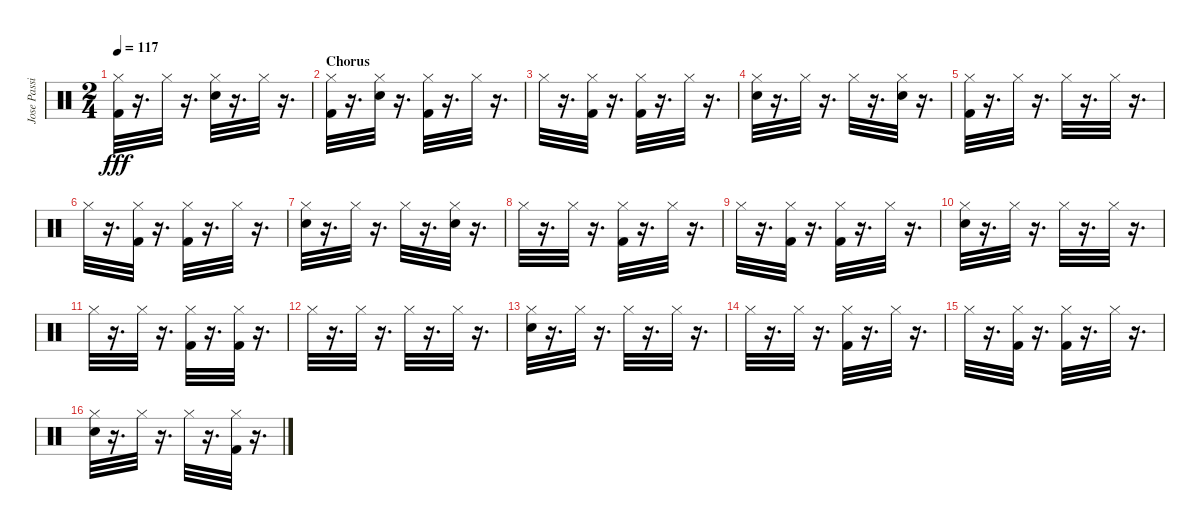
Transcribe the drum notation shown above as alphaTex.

\track ("Jose Passilas-drums" "Jose Passi") {instrument percussion}
\staff {score}
\articulation defaults
\ts (2 4)
\tempo 117
\clef neutral
\ks c
("Kick (hit) 2" "Hi-Hat (closed)").32{dy fff} r.16{d} "Hi-Hat (closed)".32 r.16{d} ("Electric Snare (hit)" "Hi-Hat (closed)").32 r.16{d} "Hi-Hat (closed)".32 r.16{d} |
\section ("" "Chorus")
("Kick (hit) 2" "Hi-Hat (closed)").32 r.16{d} ("Electric Snare (hit)" "Hi-Hat (closed)").32 r.16{d} ("Hi-Hat (closed)" "Kick (hit) 2").32 r.16{d} "Hi-Hat (closed)".32 r.16{d} |
"Hi-Hat (closed)".32 r.16{d} ("Hi-Hat (closed)" "Kick (hit) 2").32 r.16{d} ("Hi-Hat (closed)" "Kick (hit) 2").32 r.16{d} "Hi-Hat (closed)".32 r.16{d} |
("Electric Snare (hit)" "Hi-Hat (closed)").32 r.16{d} "Hi-Hat (closed)".32 r.16{d} "Hi-Hat (closed)".32 r.16{d} ("Electric Snare (hit)" "Hi-Hat (closed)").32 r.16{d} |
("Hi-Hat (closed)" "Kick (hit) 2").32 r.16{d} "Hi-Hat (closed)".32 r.16{d} "Hi-Hat (closed)".32 r.16{d} "Hi-Hat (closed)".32 r.16{d} |
"Hi-Hat (closed)".32 r.16{d} ("Hi-Hat (closed)" "Kick (hit) 2").32 r.16{d} ("Hi-Hat (closed)" "Kick (hit) 2").32 r.16{d} "Hi-Hat (closed)".32 r.16{d} |
("Electric Snare (hit)" "Hi-Hat (closed)").32 r.16{d} "Hi-Hat (closed)".32 r.16{d} "Hi-Hat (closed)".32 r.16{d} ("Electric Snare (hit)" "Hi-Hat (closed)").32 r.16{d} |
"Hi-Hat (closed)".32 r.16{d} "Hi-Hat (closed)".32 r.16{d} ("Hi-Hat (closed)" "Kick (hit) 2").32 r.16{d} "Hi-Hat (closed)".32 r.16{d} |
"Hi-Hat (closed)".32 r.16{d} ("Hi-Hat (closed)" "Kick (hit) 2").32 r.16{d} ("Hi-Hat (closed)" "Kick (hit) 2").32 r.16{d} "Hi-Hat (closed)".32 r.16{d} |
("Electric Snare (hit)" "Hi-Hat (closed)").32 r.16{d} "Hi-Hat (closed)".32 r.16{d} "Hi-Hat (closed)".32 r.16{d} "Hi-Hat (closed)".32 r.16{d} |
"Hi-Hat (closed)".32 r.16{d} "Hi-Hat (closed)".32 r.16{d} ("Hi-Hat (closed)" "Kick (hit) 2").32 r.16{d} ("Hi-Hat (closed)" "Kick (hit) 2").32 r.16{d} |
"Hi-Hat (closed)".32 r.16{d} "Hi-Hat (closed)".32 r.16{d} "Hi-Hat (closed)".32 r.16{d} "Hi-Hat (closed)".32 r.16{d} |
("Electric Snare (hit)" "Hi-Hat (closed)").32 r.16{d} "Hi-Hat (closed)".32 r.16{d} "Hi-Hat (closed)".32 r.16{d} "Hi-Hat (closed)".32 r.16{d} |
"Hi-Hat (closed)".32 r.16{d} "Hi-Hat (closed)".32 r.16{d} ("Kick (hit) 2" "Hi-Hat (closed)").32 r.16{d} "Hi-Hat (closed)".32 r.16{d} |
"Hi-Hat (closed)".32 r.16{d} ("Kick (hit) 2" "Hi-Hat (closed)").32 r.16{d} ("Kick (hit) 2" "Hi-Hat (closed)").32 r.16{d} "Hi-Hat (closed)".32 r.16{d} |
("Electric Snare (hit)" "Hi-Hat (closed)").32 r.16{d} "Hi-Hat (closed)".32 r.16{d} "Hi-Hat (closed)".32 r.16{d} ("Kick (hit) 2" "Hi-Hat (closed)").32 r.16{d}
